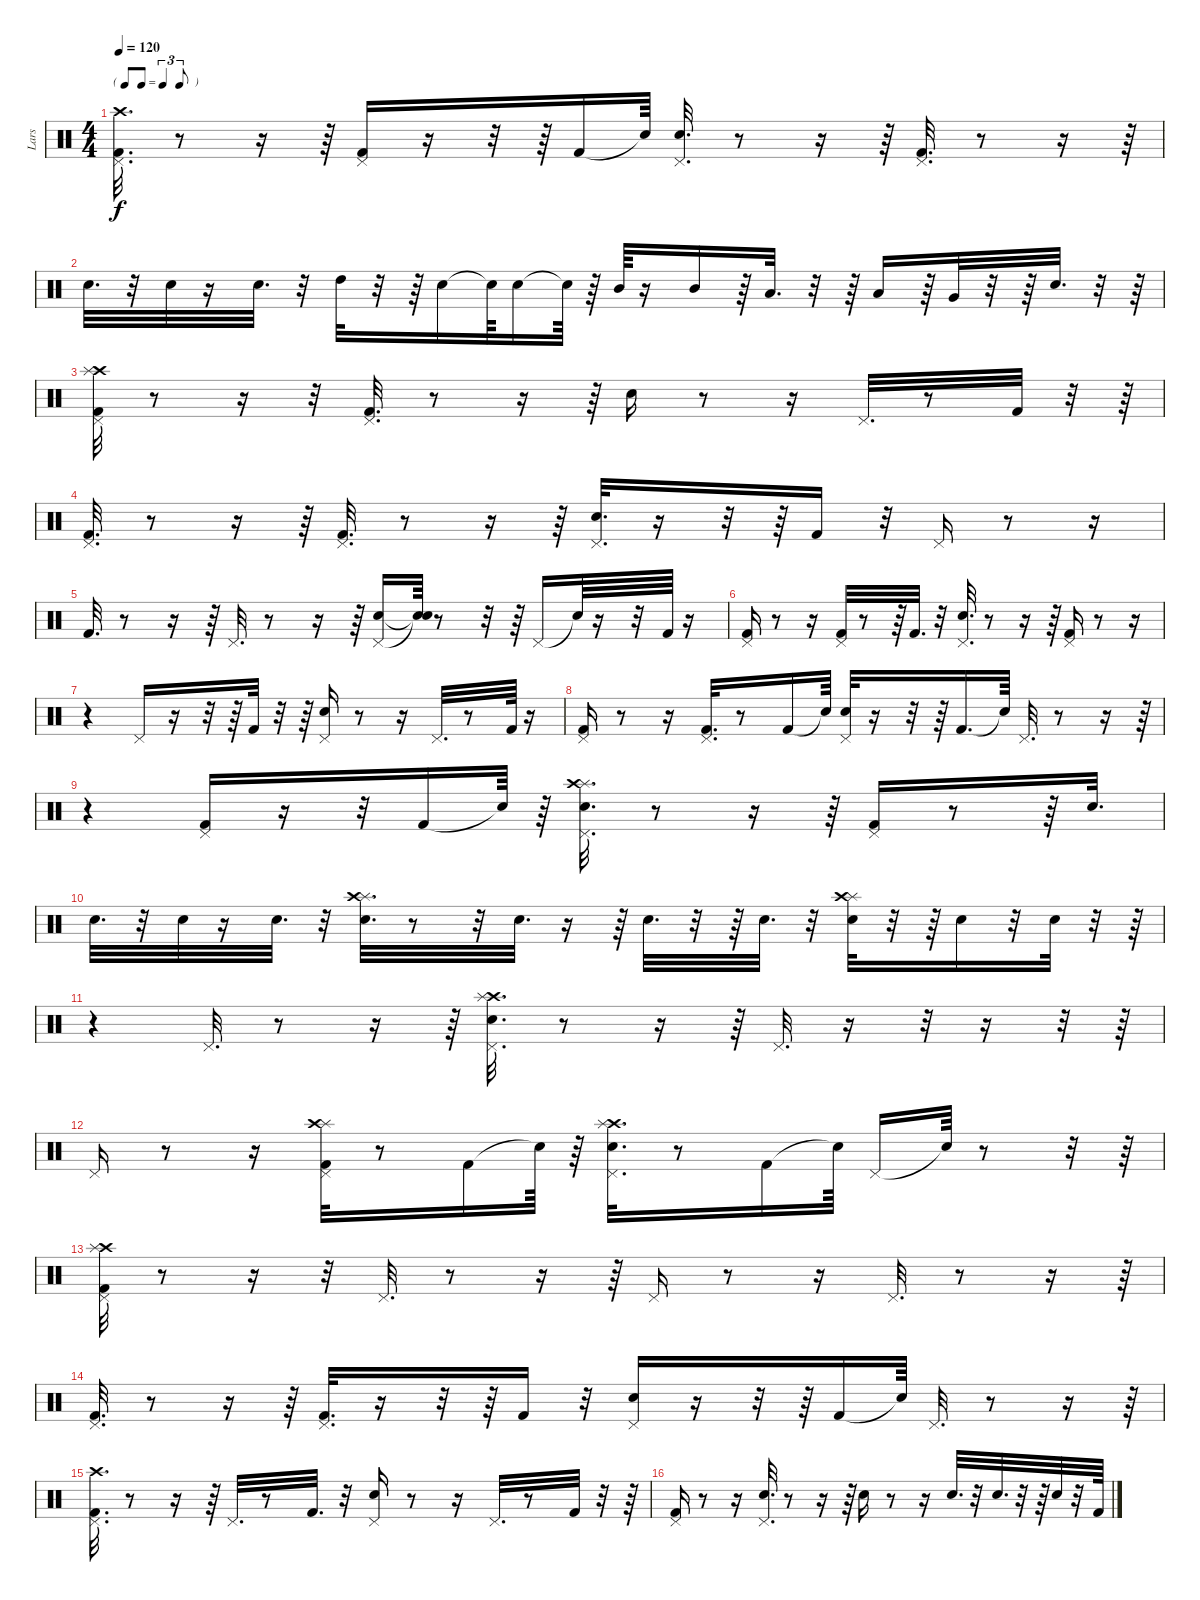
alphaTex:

\track ("Lars" "Lars") {instrument percussion}
\staff {score}
\articulation defaults
\ts (4 4)
\tf triplet8th
\tempo 120
\clef neutral
\ks c
("Kick (hit) 2" "Pedal Hi-Hat (hit)" "Crash high (hit)").32{d dy f} r.8 r.16 r.64 ("Pedal Hi-Hat (hit)" "Kick (hit) 2").16 r.16 r.32 r.64 "Kick (hit) 2".16 "Snare (hit)"{t}.64 ("Pedal Hi-Hat (hit)" "Electric Snare (hit)").32{d} r.8 r.16 r.64 ("Kick (hit) 2" "Pedal Hi-Hat (hit)").32{d} r.8 r.16 r.64 |
"Snare (hit) 2".32{d} r.32 "Snare (hit) 2".32 r.16 "Snare (hit) 2".32{d} r.32 "High Tom (hit)".32 r.32 r.64 "Electric Snare (hit)".16 "Snare (hit)"{t}.64 "Electric Snare (hit)".16 "Snare (hit)"{t}.64 r.64 "Mid Tom (hit)".64 r.16 "Mid Tom (hit)".16 r.64 "Low Tom (hit)".32{d} r.32 r.64 "Low Tom (hit)".16 r.64 "Very Low Tom (hit)".32 r.32 r.64 "Electric Snare (hit)".32{d} r.32 r.64 |
("Kick (hit) 2" "Pedal Hi-Hat (hit)" "Crash high (hit)" "Splash (hit)").32 r.8 r.16 r.32 ("Kick (hit) 2" "Pedal Hi-Hat (hit)").32{d} r.8 r.16 r.64 "Electric Snare (hit)".16 r.8 r.16 "Pedal Hi-Hat (hit)".32{d} r.8 "Kick (hit) 2".32 r.32 r.64 |
("Kick (hit) 2" "Pedal Hi-Hat (hit)").32{d} r.8 r.16 r.64 ("Kick (hit) 2" "Pedal Hi-Hat (hit)").32{d} r.8 r.16 r.64 ("Electric Snare (hit)" "Pedal Hi-Hat (hit)").32{d} r.16 r.32 r.64 "Kick (hit) 2".16 r.32 "Pedal Hi-Hat (hit)".16 r.8 r.16 |
"Kick (hit) 2".32{d} r.8 r.16 r.64 "Pedal Hi-Hat (hit)".32{d} r.8 r.16 r.64 ("Electric Snare (hit)" "Pedal Hi-Hat (hit)").16 ("Snare (hit)"{t} "Snare (hit)"{t}).64 r.8 r.32 r.64 "Pedal Hi-Hat (hit)".16 "Snare (hit)"{t}.64 r.16 r.32 "Kick (hit) 2".64 r.16 |
("Kick (hit) 2" "Pedal Hi-Hat (hit)").16 r.8 r.16 ("Kick (hit) 2" "Pedal Hi-Hat (hit)").32 r.8 r.64 "Kick (hit) 2".32{d} r.32 ("Electric Snare (hit)" "Pedal Hi-Hat (hit)").32{d} r.8 r.16 r.64 ("Kick (hit) 2" "Pedal Hi-Hat (hit)").16 r.8 r.16 |
r.4 "Pedal Hi-Hat (hit)".16 r.16 r.32 r.64 "Kick (hit) 2".32 r.32 r.64 ("Pedal Hi-Hat (hit)" "Electric Snare (hit)").16 r.8 r.16 "Pedal Hi-Hat (hit)".32{d} r.8 "Kick (hit) 2".64 r.16 |
("Kick (hit) 2" "Pedal Hi-Hat (hit)").16 r.8 r.16 ("Pedal Hi-Hat (hit)" "Kick (hit) 2").32{d} r.8 "Kick (hit) 2".16 "Snare (hit)"{t}.64 ("Pedal Hi-Hat (hit)" "Electric Snare (hit)").32 r.16 r.32 r.64 "Kick (hit) 2".16{d} "Snare (hit)"{t}.64 "Pedal Hi-Hat (hit)".32{d} r.8 r.16 r.64 |
r.4 ("Kick (hit) 2" "Pedal Hi-Hat (hit)").16 r.16 r.32 "Kick (hit) 2".16 "Snare (hit)"{t}.64 r.64 ("Splash (hit)" "Crash high (hit)" "Pedal Hi-Hat (hit)" "Electric Snare (hit)").32{d} r.8 r.16 r.64 ("Kick (hit) 2" "Pedal Hi-Hat (hit)").16 r.8 r.64 "Electric Snare (hit)".32{d} |
"Electric Snare (hit)".32{d} r.32 "Electric Snare (hit)".32 r.16 "Electric Snare (hit)".32{d} r.32 ("Splash (hit)" "Crash high (hit)" "Electric Snare (hit)").32{d} r.8 r.32 "Electric Snare (hit)".32{d} r.16 r.64 "Electric Snare (hit)".32{d} r.32 r.64 "Electric Snare (hit)".32{d} r.32 ("Electric Snare (hit)" "Splash (hit)" "Crash high (hit)").32 r.32 r.64 "Electric Snare (hit)".16 r.32 "Electric Snare (hit)".32 r.32 r.64 |
r.4 "Pedal Hi-Hat (hit)".32{d} r.8 r.16 r.64 ("Crash high (hit)" "Splash (hit)" "Electric Snare (hit)" "Pedal Hi-Hat (hit)").32{d} r.8 r.16 r.64 "Pedal Hi-Hat (hit)".32{d} r.16 r.32 r.16 r.32 r.64 |
"Pedal Hi-Hat (hit)".16 r.8 r.16 ("Kick (hit) 2" "Pedal Hi-Hat (hit)" "Splash (hit)" "Crash high (hit)").32 r.8 "Kick (hit) 2".16 "Snare (hit)"{t}.64 r.64 ("Electric Snare (hit)" "Crash high (hit)" "Pedal Hi-Hat (hit)" "Splash (hit)").32{d} r.8 "Kick (hit) 2".16 "Snare (hit)"{t}.64 "Pedal Hi-Hat (hit)".16 "Snare (hit)"{t}.64 r.8 r.32 r.64 |
("Kick (hit) 2" "Pedal Hi-Hat (hit)" "Crash high (hit)" "Splash (hit)").32 r.8 r.16 r.32 "Pedal Hi-Hat (hit)".32{d} r.8 r.16 r.64 "Pedal Hi-Hat (hit)".16 r.8 r.16 "Pedal Hi-Hat (hit)".32{d} r.8 r.16 r.64 |
("Kick (hit) 2" "Pedal Hi-Hat (hit)").32{d} r.8 r.16 r.64 ("Pedal Hi-Hat (hit)" "Kick (hit) 2").32{d} r.16 r.32 r.64 "Kick (hit) 2".16 r.32 ("Electric Snare (hit)" "Pedal Hi-Hat (hit)").16 r.16 r.32 r.64 "Kick (hit) 2".16 "Snare (hit)"{t}.64 "Pedal Hi-Hat (hit)".32{d} r.8 r.16 r.64 |
("Pedal Hi-Hat (hit)" "Crash high (hit)" "Kick (hit) 2").32{d} r.8 r.16 r.64 "Pedal Hi-Hat (hit)".32{d} r.8 "Kick (hit) 2".32{d} r.32 ("Pedal Hi-Hat (hit)" "Electric Snare (hit)").16 r.8 r.16 "Pedal Hi-Hat (hit)".32{d} r.8 "Kick (hit) 2".32 r.32 r.64 |
("Kick (hit) 2" "Pedal Hi-Hat (hit)").16 r.8 r.16 ("Electric Snare (hit)" "Pedal Hi-Hat (hit)").32{d} r.8 r.16 r.64 "Electric Snare (hit)".16 r.8 r.16 "Electric Snare (hit)".32{d} r.32 "Electric Snare (hit)".32{d} r.32 r.64 "Electric Snare (hit)".32 r.32 "Kick (hit) 2".64
